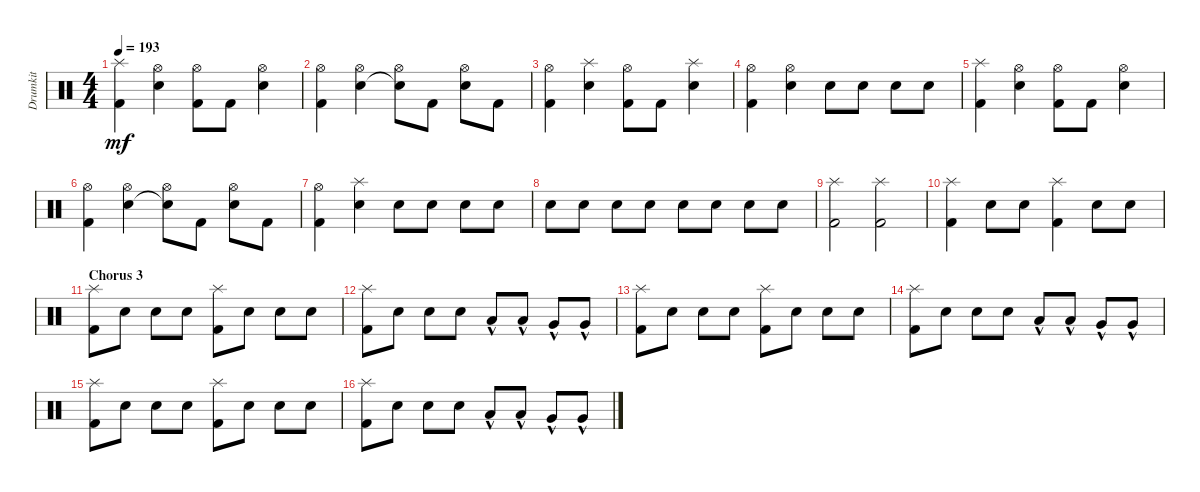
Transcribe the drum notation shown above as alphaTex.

\track ("Drumkit" "Drumkit") {instrument percussion}
\staff {score}
\articulation defaults
\ts (4 4)
\tempo 193
\clef neutral
\ks c
("Kick (hit) 2" "Splash (hit)").4{dy mf} ("Snare (hit) 2" "Hi-Hat (open)").4 ("Kick (hit) 2" "Hi-Hat (open)").8 "Kick (hit) 2".8 ("Snare (hit) 2" "Hi-Hat (open)").4 |
("Kick (hit) 2" "Hi-Hat (open)").4 ("Snare (hit) 2" "Hi-Hat (open)").4 ("Snare (hit) 2"{t} "Hi-Hat (open)").8 "Kick (hit) 2".8 ("Snare (hit) 2" "Hi-Hat (open)").8 "Kick (hit) 2".8 |
("Kick (hit) 2" "Hi-Hat (open)").4 ("Snare (hit) 2" "Splash (hit)").4 ("Kick (hit) 2" "Hi-Hat (open)").8 "Kick (hit) 2".8 ("Snare (hit) 2" "Splash (hit)").4 |
("Kick (hit) 2" "Hi-Hat (open)").4 ("Snare (hit) 2" "Hi-Hat (open)").4 "Snare (hit) 2".8 "Snare (hit) 2".8 "Snare (hit) 2".8 "Snare (hit) 2".8 |
("Kick (hit) 2" "Splash (hit)").4 ("Snare (hit) 2" "Hi-Hat (open)").4 ("Kick (hit) 2" "Hi-Hat (open)").8 "Kick (hit) 2".8 ("Snare (hit) 2" "Hi-Hat (open)").4 |
("Kick (hit) 2" "Hi-Hat (open)").4 ("Snare (hit) 2" "Hi-Hat (open)").4 ("Snare (hit) 2"{t} "Hi-Hat (open)").8 "Kick (hit) 2".8 ("Snare (hit) 2" "Hi-Hat (open)").8 "Kick (hit) 2".8 |
("Kick (hit) 2" "Hi-Hat (open)").4 ("Snare (hit) 2" "Splash (hit)").4 "Snare (hit) 2".8 "Snare (hit) 2".8 "Snare (hit) 2".8 "Snare (hit) 2".8 |
"Snare (hit) 2".8 "Snare (hit) 2".8 "Snare (hit) 2".8 "Snare (hit) 2".8 "Snare (hit) 2".8 "Snare (hit) 2".8 "Snare (hit) 2".8 "Snare (hit) 2".8 |
("Kick (hit) 2" "Splash (hit)").2 ("Kick (hit) 2" "Splash (hit)").2 |
("Kick (hit) 2" "Splash (hit)").4 "Snare (hit) 2".8 "Snare (hit) 2".8 ("Kick (hit) 2" "Splash (hit)").4 "Snare (hit) 2".8 "Snare (hit) 2".8 |
\section ("" "Chorus 3")
("Kick (hit) 2" "Splash (hit)").8 "Snare (hit) 2".8 "Snare (hit) 2".8 "Snare (hit) 2".8 ("Kick (hit) 2" "Splash (hit)").8 "Snare (hit) 2".8 "Snare (hit) 2".8 "Snare (hit) 2".8 |
("Kick (hit) 2" "Splash (hit)").8 "Snare (hit) 2".8 "Snare (hit) 2".8 "Snare (hit) 2".8 "Low Tom (hit)"{hac}.8 "Low Tom (hit)"{hac}.8 "Very Low Tom (hit)"{hac}.8 "Very Low Tom (hit)"{hac}.8 |
("Kick (hit) 2" "Splash (hit)").8 "Snare (hit) 2".8 "Snare (hit) 2".8 "Snare (hit) 2".8 ("Kick (hit) 2" "Splash (hit)").8 "Snare (hit) 2".8 "Snare (hit) 2".8 "Snare (hit) 2".8 |
("Kick (hit) 2" "Splash (hit)").8 "Snare (hit) 2".8 "Snare (hit) 2".8 "Snare (hit) 2".8 "Low Tom (hit)"{hac}.8 "Low Tom (hit)"{hac}.8 "Very Low Tom (hit)"{hac}.8 "Very Low Tom (hit)"{hac}.8 |
("Kick (hit) 2" "Splash (hit)").8 "Snare (hit) 2".8 "Snare (hit) 2".8 "Snare (hit) 2".8 ("Kick (hit) 2" "Splash (hit)").8 "Snare (hit) 2".8 "Snare (hit) 2".8 "Snare (hit) 2".8 |
("Kick (hit) 2" "Splash (hit)").8 "Snare (hit) 2".8 "Snare (hit) 2".8 "Snare (hit) 2".8 "Low Tom (hit)"{hac}.8 "Low Tom (hit)"{hac}.8 "Very Low Tom (hit)"{hac}.8 "Very Low Tom (hit)"{hac}.8
